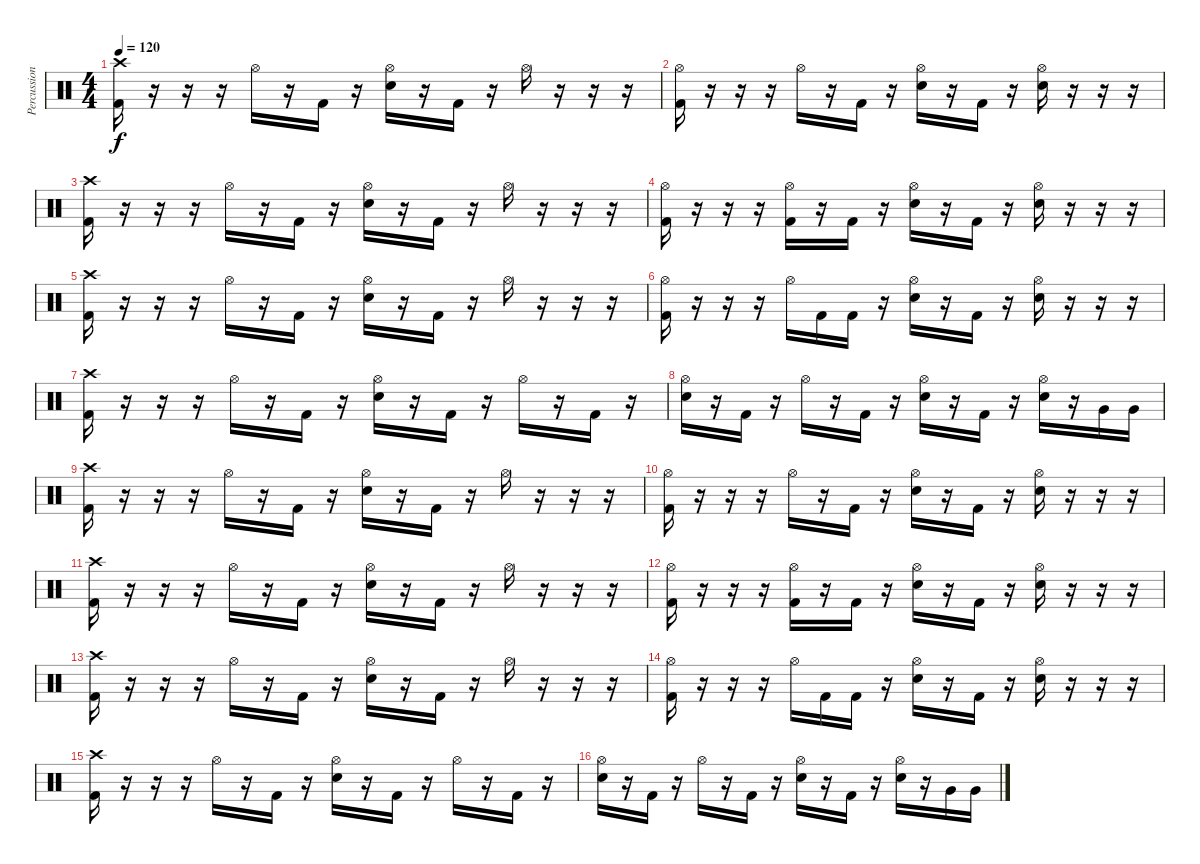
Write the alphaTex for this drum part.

\track ("Percussion" "Percussion") {instrument percussion}
\staff {score}
\articulation defaults
\ts (4 4)
\tempo 120
\clef neutral
\ks c
("Crash high (hit)" "Kick (hit) 2").16{dy f} r.16 r.16 r.16 "Hi-Hat (open)".16 r.16 "Kick (hit) 2".16 r.16 ("Hi-Hat (open)" "Electric Snare (hit)").16 r.16 "Kick (hit) 2".16 r.16 "Hi-Hat (open)".16 r.16 r.16 r.16 |
("Hi-Hat (open)" "Kick (hit) 2").16 r.16 r.16 r.16 "Hi-Hat (open)".16 r.16 "Kick (hit) 2".16 r.16 ("Hi-Hat (open)" "Electric Snare (hit)").16 r.16 "Kick (hit) 2".16 r.16 ("Hi-Hat (open)" "Electric Snare (hit)").16 r.16 r.16 r.16 |
("Crash high (hit)" "Kick (hit) 2").16 r.16 r.16 r.16 "Hi-Hat (open)".16 r.16 "Kick (hit) 2".16 r.16 ("Hi-Hat (open)" "Electric Snare (hit)").16 r.16 "Kick (hit) 2".16 r.16 "Hi-Hat (open)".16 r.16 r.16 r.16 |
("Hi-Hat (open)" "Kick (hit) 2").16 r.16 r.16 r.16 ("Hi-Hat (open)" "Kick (hit) 2").16 r.16 "Kick (hit) 2".16 r.16 ("Hi-Hat (open)" "Electric Snare (hit)").16 r.16 "Kick (hit) 2".16 r.16 ("Hi-Hat (open)" "Electric Snare (hit)").16 r.16 r.16 r.16 |
("Crash high (hit)" "Kick (hit) 2").16 r.16 r.16 r.16 "Hi-Hat (open)".16 r.16 "Kick (hit) 2".16 r.16 ("Hi-Hat (open)" "Electric Snare (hit)").16 r.16 "Kick (hit) 2".16 r.16 "Hi-Hat (open)".16 r.16 r.16 r.16 |
("Hi-Hat (open)" "Kick (hit) 2").16 r.16 r.16 r.16 "Hi-Hat (open)".16 "Kick (hit) 2".16 "Kick (hit) 2".16 r.16 ("Hi-Hat (open)" "Electric Snare (hit)").16 r.16 "Kick (hit) 2".16 r.16 ("Hi-Hat (open)" "Electric Snare (hit)").16 r.16 r.16 r.16 |
("Crash high (hit)" "Kick (hit) 2").16 r.16 r.16 r.16 "Hi-Hat (open)".16 r.16 "Kick (hit) 2".16 r.16 ("Hi-Hat (open)" "Electric Snare (hit)").16 r.16 "Kick (hit) 2".16 r.16 "Hi-Hat (open)".16 r.16 "Kick (hit) 2".16 r.16 |
("Hi-Hat (open)" "Electric Snare (hit)").16 r.16 "Kick (hit) 2".16 r.16 "Hi-Hat (open)".16 r.16 "Kick (hit) 2".16 r.16 ("Hi-Hat (open)" "Electric Snare (hit)").16 r.16 "Kick (hit) 2".16 r.16 ("Hi-Hat (open)" "Electric Snare (hit)").16 r.16 "Very Low Tom (hit)".16 "Very Low Tom (hit)".16 |
("Crash high (hit)" "Kick (hit) 2").16 r.16 r.16 r.16 "Hi-Hat (open)".16 r.16 "Kick (hit) 2".16 r.16 ("Hi-Hat (open)" "Electric Snare (hit)").16 r.16 "Kick (hit) 2".16 r.16 "Hi-Hat (open)".16 r.16 r.16 r.16 |
("Hi-Hat (open)" "Kick (hit) 2").16 r.16 r.16 r.16 "Hi-Hat (open)".16 r.16 "Kick (hit) 2".16 r.16 ("Hi-Hat (open)" "Electric Snare (hit)").16 r.16 "Kick (hit) 2".16 r.16 ("Hi-Hat (open)" "Electric Snare (hit)").16 r.16 r.16 r.16 |
("Crash high (hit)" "Kick (hit) 2").16 r.16 r.16 r.16 "Hi-Hat (open)".16 r.16 "Kick (hit) 2".16 r.16 ("Hi-Hat (open)" "Electric Snare (hit)").16 r.16 "Kick (hit) 2".16 r.16 "Hi-Hat (open)".16 r.16 r.16 r.16 |
("Hi-Hat (open)" "Kick (hit) 2").16 r.16 r.16 r.16 ("Hi-Hat (open)" "Kick (hit) 2").16 r.16 "Kick (hit) 2".16 r.16 ("Hi-Hat (open)" "Electric Snare (hit)").16 r.16 "Kick (hit) 2".16 r.16 ("Hi-Hat (open)" "Electric Snare (hit)").16 r.16 r.16 r.16 |
("Crash high (hit)" "Kick (hit) 2").16 r.16 r.16 r.16 "Hi-Hat (open)".16 r.16 "Kick (hit) 2".16 r.16 ("Hi-Hat (open)" "Electric Snare (hit)").16 r.16 "Kick (hit) 2".16 r.16 "Hi-Hat (open)".16 r.16 r.16 r.16 |
("Hi-Hat (open)" "Kick (hit) 2").16 r.16 r.16 r.16 "Hi-Hat (open)".16 "Kick (hit) 2".16 "Kick (hit) 2".16 r.16 ("Hi-Hat (open)" "Electric Snare (hit)").16 r.16 "Kick (hit) 2".16 r.16 ("Hi-Hat (open)" "Electric Snare (hit)").16 r.16 r.16 r.16 |
("Crash high (hit)" "Kick (hit) 2").16 r.16 r.16 r.16 "Hi-Hat (open)".16 r.16 "Kick (hit) 2".16 r.16 ("Hi-Hat (open)" "Electric Snare (hit)").16 r.16 "Kick (hit) 2".16 r.16 "Hi-Hat (open)".16 r.16 "Kick (hit) 2".16 r.16 |
("Hi-Hat (open)" "Electric Snare (hit)").16 r.16 "Kick (hit) 2".16 r.16 "Hi-Hat (open)".16 r.16 "Kick (hit) 2".16 r.16 ("Hi-Hat (open)" "Electric Snare (hit)").16 r.16 "Kick (hit) 2".16 r.16 ("Hi-Hat (open)" "Electric Snare (hit)").16 r.16 "Very Low Tom (hit)".16 "Very Low Tom (hit)".16
